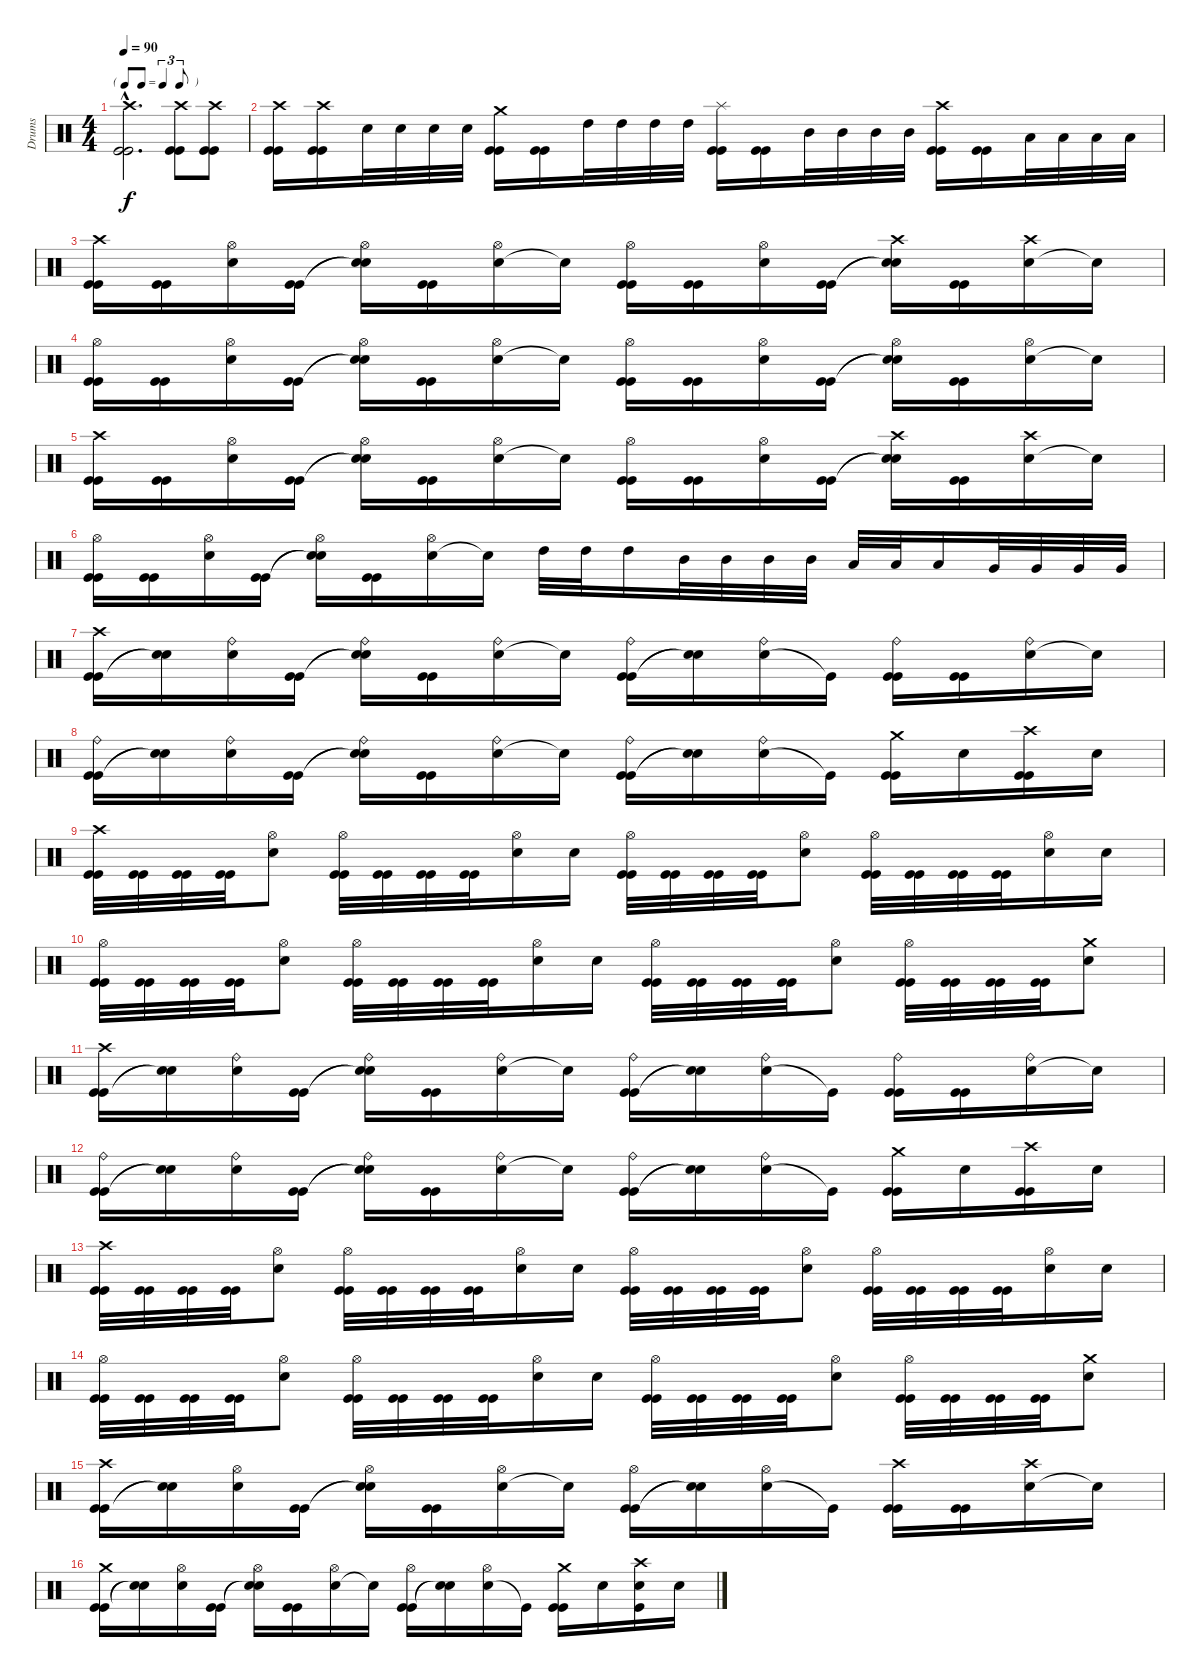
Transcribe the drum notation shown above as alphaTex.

\track ("Drums" "Drums") {instrument percussion}
\staff {score}
\articulation defaults
\ts (4 4)
\tf triplet8th
\tempo 90
\clef neutral
\ks c
("Kick (hit)"{hac} "Kick (hit)"{hac} "Crash high (hit)"{hac}).2{d dy f} ("Kick (hit)" "Crash high (hit)" "Kick (hit)").8 ("Kick (hit)" "Crash high (hit)" "Kick (hit)").8 |
("Kick (hit)" "Kick (hit)" "Crash high (hit)").16 ("Kick (hit)" "Kick (hit)" "Crash high (hit)").16 "Snare (hit) 2".32 "Snare (hit) 2".32 "Snare (hit) 2".32 "Snare (hit) 2".32 ("Kick (hit)" "Kick (hit)" "Crash medium (hit)").16 ("Kick (hit)" "Kick (hit)").16 "High Tom (hit)".32 "High Tom (hit)".32 "High Tom (hit)".32 "High Tom (hit)".32 ("Kick (hit)" "Kick (hit)" "Splash (hit)").16 ("Kick (hit)" "Kick (hit)").16 "Mid Tom (hit)".32 "Mid Tom (hit)".32 "Mid Tom (hit)".32 "Mid Tom (hit)".32 ("Kick (hit)" "Kick (hit)" "Crash high (hit)").16 ("Kick (hit)" "Kick (hit)").16 "Low Tom (hit)".32 "Low Tom (hit)".32 "Low Tom (hit)".32 "Low Tom (hit)".32 |
("Kick (hit)" "Kick (hit)" "Crash high (hit)").16 ("Kick (hit)" "Kick (hit)").16 ("Snare (hit) 2" "Hi-Hat (open)").16 ("Kick (hit)" "Kick (hit)").16 ("Snare (hit)"{t} "Snare (hit)"{t} "Hi-Hat (open)").16 ("Kick (hit)" "Kick (hit)").16 ("Snare (hit) 2" "Hi-Hat (open)").16 "Snare (hit)"{t}.16 ("Kick (hit)" "Kick (hit)" "Hi-Hat (open)").16 ("Kick (hit)" "Kick (hit)").16 ("Snare (hit) 2" "Hi-Hat (open)").16 ("Kick (hit)" "Kick (hit)").16 ("Snare (hit)"{t} "Snare (hit)"{t} "Crash high (hit)").16 ("Kick (hit)" "Kick (hit)").16 ("Snare (hit) 2" "Crash high (hit)").16 "Snare (hit)"{t}.16 |
("Kick (hit)" "Kick (hit)" "Hi-Hat (open)").16 ("Kick (hit)" "Kick (hit)").16 ("Snare (hit) 2" "Hi-Hat (open)").16 ("Kick (hit)" "Kick (hit)").16 ("Snare (hit)"{t} "Snare (hit)"{t} "Hi-Hat (open)").16 ("Kick (hit)" "Kick (hit)").16 ("Snare (hit) 2" "Hi-Hat (open)").16 "Snare (hit)"{t}.16 ("Kick (hit)" "Kick (hit)" "Hi-Hat (open)").16 ("Kick (hit)" "Kick (hit)").16 ("Snare (hit) 2" "Hi-Hat (open)").16 ("Kick (hit)" "Kick (hit)").16 ("Snare (hit)"{t} "Snare (hit)"{t} "Hi-Hat (open)").16 ("Kick (hit)" "Kick (hit)").16 ("Snare (hit) 2" "Hi-Hat (open)").16 "Snare (hit)"{t}.16 |
("Kick (hit)" "Kick (hit)" "Crash high (hit)").16 ("Kick (hit)" "Kick (hit)").16 ("Snare (hit) 2" "Hi-Hat (open)").16 ("Kick (hit)" "Kick (hit)").16 ("Snare (hit)"{t} "Snare (hit)"{t} "Hi-Hat (open)").16 ("Kick (hit)" "Kick (hit)").16 ("Snare (hit) 2" "Hi-Hat (open)").16 "Snare (hit)"{t}.16 ("Kick (hit)" "Kick (hit)" "Hi-Hat (open)").16 ("Kick (hit)" "Kick (hit)").16 ("Snare (hit) 2" "Hi-Hat (open)").16 ("Kick (hit)" "Kick (hit)").16 ("Snare (hit)"{t} "Snare (hit)"{t} "Crash high (hit)").16 ("Kick (hit)" "Kick (hit)").16 ("Snare (hit) 2" "Crash high (hit)").16 "Snare (hit)"{t}.16 |
("Kick (hit)" "Kick (hit)" "Hi-Hat (open)").16 ("Kick (hit)" "Kick (hit)").16 ("Snare (hit) 2" "Hi-Hat (open)").16 ("Kick (hit)" "Kick (hit)").16 ("Snare (hit)"{t} "Snare (hit)"{t} "Hi-Hat (open)").16 ("Kick (hit)" "Kick (hit)").16 ("Snare (hit) 2" "Hi-Hat (open)").16 "Snare (hit)"{t}.16 "High Tom (hit)".32 "High Tom (hit)".32 "High Tom (hit)".16 "Mid Tom (hit)".32 "Mid Tom (hit)".32 "Mid Tom (hit)".32 "Mid Tom (hit)".32 "Low Tom (hit)".32 "Low Tom (hit)".32 "Low Tom (hit)".16 "Very Low Tom (hit)".32 "Very Low Tom (hit)".32 "Very Low Tom (hit)".32 "Very Low Tom (hit)".32 |
("Kick (hit)" "Kick (hit)" "Crash high (hit)").16 ("Snare (hit) 2"{t} "Snare (hit)"{t}).16 ("Snare (hit) 2" "Ride (bell)").16 ("Kick (hit)" "Kick (hit)").16 ("Snare (hit)"{t} "Snare (hit) 2"{t} "Ride (bell)").16 ("Kick (hit)" "Kick (hit)").16 ("Snare (hit) 2" "Ride (bell)").16 "Snare (hit)"{t}.16 ("Kick (hit)" "Kick (hit)" "Ride (bell)").16 ("Snare (hit) 2"{t} "Snare (hit)"{t}).16 ("Snare (hit) 2" "Ride (bell)").16 "Kick (hit)"{t}.16 ("Kick (hit)" "Kick (hit)" "Ride (bell)").16 ("Kick (hit)" "Kick (hit)").16 ("Snare (hit) 2" "Ride (bell)").16 "Snare (hit)"{t}.16 |
("Kick (hit)" "Kick (hit)" "Ride (bell)").16 ("Snare (hit) 2"{t} "Snare (hit)"{t}).16 ("Snare (hit) 2" "Ride (bell)").16 ("Kick (hit)" "Kick (hit)").16 ("Snare (hit)"{t} "Snare (hit) 2"{t} "Ride (bell)").16 ("Kick (hit)" "Kick (hit)").16 ("Snare (hit) 2" "Ride (bell)").16 "Snare (hit)"{t}.16 ("Kick (hit)" "Kick (hit)" "Ride (bell)").16 ("Snare (hit) 2"{t} "Snare (hit)"{t}).16 ("Snare (hit) 2" "Ride (bell)").16 "Kick (hit)"{t}.16 ("Kick (hit)" "Kick (hit)" "Crash medium (hit)").16 "Snare (hit) 2".16 ("Kick (hit)" "Kick (hit)" "Crash high (hit)").16 "Snare (hit) 2".16 |
("Kick (hit)" "Kick (hit)" "Crash high (hit)").32 ("Kick (hit)" "Kick (hit)").32 ("Kick (hit)" "Kick (hit)").32 ("Kick (hit)" "Kick (hit)").32 ("Snare (hit) 2" "Hi-Hat (open)").8 ("Kick (hit)" "Kick (hit)" "Hi-Hat (open)").32 ("Kick (hit)" "Kick (hit)").32 ("Kick (hit)" "Kick (hit)").32 ("Kick (hit)" "Kick (hit)").32 ("Snare (hit) 2" "Hi-Hat (open)").16 "Snare (hit) 2".16 ("Kick (hit)" "Kick (hit)" "Hi-Hat (open)").32 ("Kick (hit)" "Kick (hit)").32 ("Kick (hit)" "Kick (hit)").32 ("Kick (hit)" "Kick (hit)").32 ("Snare (hit) 2" "Hi-Hat (open)").8 ("Kick (hit)" "Kick (hit)" "Hi-Hat (open)").32 ("Kick (hit)" "Kick (hit)").32 ("Kick (hit)" "Kick (hit)").32 ("Kick (hit)" "Kick (hit)").32 ("Snare (hit) 2" "Hi-Hat (open)").16 "Snare (hit) 2".16 |
("Kick (hit)" "Kick (hit)" "Hi-Hat (open)").32 ("Kick (hit)" "Kick (hit)").32 ("Kick (hit)" "Kick (hit)").32 ("Kick (hit)" "Kick (hit)").32 ("Snare (hit) 2" "Hi-Hat (open)").8 ("Kick (hit)" "Kick (hit)" "Hi-Hat (open)").32 ("Kick (hit)" "Kick (hit)").32 ("Kick (hit)" "Kick (hit)").32 ("Kick (hit)" "Kick (hit)").32 ("Snare (hit) 2" "Hi-Hat (open)").16 "Snare (hit) 2".16 ("Kick (hit)" "Kick (hit)" "Hi-Hat (open)").32 ("Kick (hit)" "Kick (hit)").32 ("Kick (hit)" "Kick (hit)").32 ("Kick (hit)" "Kick (hit)").32 ("Snare (hit) 2" "Hi-Hat (open)").8 ("Kick (hit)" "Kick (hit)" "Hi-Hat (open)").32 ("Kick (hit)" "Kick (hit)").32 ("Kick (hit)" "Kick (hit)").32 ("Kick (hit)" "Kick (hit)").32 ("Snare (hit) 2" "Crash medium (hit)").8 |
("Kick (hit)" "Kick (hit)" "Crash high (hit)").16 ("Snare (hit) 2"{t} "Snare (hit)"{t}).16 ("Snare (hit) 2" "Ride (bell)").16 ("Kick (hit)" "Kick (hit)").16 ("Snare (hit)"{t} "Snare (hit) 2"{t} "Ride (bell)").16 ("Kick (hit)" "Kick (hit)").16 ("Snare (hit) 2" "Ride (bell)").16 "Snare (hit)"{t}.16 ("Kick (hit)" "Kick (hit)" "Ride (bell)").16 ("Snare (hit) 2"{t} "Snare (hit)"{t}).16 ("Snare (hit) 2" "Ride (bell)").16 "Kick (hit)"{t}.16 ("Kick (hit)" "Kick (hit)" "Ride (bell)").16 ("Kick (hit)" "Kick (hit)").16 ("Snare (hit) 2" "Ride (bell)").16 "Snare (hit)"{t}.16 |
("Kick (hit)" "Kick (hit)" "Ride (bell)").16 ("Snare (hit) 2"{t} "Snare (hit)"{t}).16 ("Snare (hit) 2" "Ride (bell)").16 ("Kick (hit)" "Kick (hit)").16 ("Snare (hit)"{t} "Snare (hit) 2"{t} "Ride (bell)").16 ("Kick (hit)" "Kick (hit)").16 ("Snare (hit) 2" "Ride (bell)").16 "Snare (hit)"{t}.16 ("Kick (hit)" "Kick (hit)" "Ride (bell)").16 ("Snare (hit) 2"{t} "Snare (hit)"{t}).16 ("Snare (hit) 2" "Ride (bell)").16 "Kick (hit)"{t}.16 ("Kick (hit)" "Kick (hit)" "Crash medium (hit)").16 "Snare (hit) 2".16 ("Kick (hit)" "Kick (hit)" "Crash high (hit)").16 "Snare (hit) 2".16 |
("Kick (hit)" "Kick (hit)" "Crash high (hit)").32 ("Kick (hit)" "Kick (hit)").32 ("Kick (hit)" "Kick (hit)").32 ("Kick (hit)" "Kick (hit)").32 ("Snare (hit) 2" "Hi-Hat (open)").8 ("Kick (hit)" "Kick (hit)" "Hi-Hat (open)").32 ("Kick (hit)" "Kick (hit)").32 ("Kick (hit)" "Kick (hit)").32 ("Kick (hit)" "Kick (hit)").32 ("Snare (hit) 2" "Hi-Hat (open)").16 "Snare (hit) 2".16 ("Kick (hit)" "Kick (hit)" "Hi-Hat (open)").32 ("Kick (hit)" "Kick (hit)").32 ("Kick (hit)" "Kick (hit)").32 ("Kick (hit)" "Kick (hit)").32 ("Snare (hit) 2" "Hi-Hat (open)").8 ("Kick (hit)" "Kick (hit)" "Hi-Hat (open)").32 ("Kick (hit)" "Kick (hit)").32 ("Kick (hit)" "Kick (hit)").32 ("Kick (hit)" "Kick (hit)").32 ("Snare (hit) 2" "Hi-Hat (open)").16 "Snare (hit) 2".16 |
("Kick (hit)" "Kick (hit)" "Hi-Hat (open)").32 ("Kick (hit)" "Kick (hit)").32 ("Kick (hit)" "Kick (hit)").32 ("Kick (hit)" "Kick (hit)").32 ("Snare (hit) 2" "Hi-Hat (open)").8 ("Kick (hit)" "Kick (hit)" "Hi-Hat (open)").32 ("Kick (hit)" "Kick (hit)").32 ("Kick (hit)" "Kick (hit)").32 ("Kick (hit)" "Kick (hit)").32 ("Snare (hit) 2" "Hi-Hat (open)").16 "Snare (hit) 2".16 ("Kick (hit)" "Kick (hit)" "Hi-Hat (open)").32 ("Kick (hit)" "Kick (hit)").32 ("Kick (hit)" "Kick (hit)").32 ("Kick (hit)" "Kick (hit)").32 ("Snare (hit) 2" "Hi-Hat (open)").8 ("Kick (hit)" "Kick (hit)" "Hi-Hat (open)").32 ("Kick (hit)" "Kick (hit)").32 ("Kick (hit)" "Kick (hit)").32 ("Kick (hit)" "Kick (hit)").32 ("Snare (hit) 2" "Crash medium (hit)").8 |
("Kick (hit)" "Kick (hit)" "Crash high (hit)").16 ("Snare (hit) 2"{t} "Snare (hit)"{t}).16 ("Snare (hit) 2" "Hi-Hat (open)").16 ("Kick (hit)" "Kick (hit)").16 ("Snare (hit)"{t} "Snare (hit) 2"{t} "Hi-Hat (open)").16 ("Kick (hit)" "Kick (hit)").16 ("Snare (hit) 2" "Hi-Hat (open)").16 "Snare (hit)"{t}.16 ("Kick (hit)" "Kick (hit)" "Hi-Hat (open)").16 ("Snare (hit) 2"{t} "Snare (hit)"{t}).16 ("Snare (hit) 2" "Hi-Hat (open)").16 "Kick (hit)"{t}.16 ("Kick (hit)" "Kick (hit)" "Crash high (hit)").16 ("Kick (hit)" "Kick (hit)").16 ("Snare (hit) 2" "Crash high (hit)").16 "Snare (hit)"{t}.16 |
("Kick (hit)" "Kick (hit)" "Crash medium (hit)").16 ("Snare (hit) 2"{t} "Snare (hit)"{t}).16 ("Snare (hit) 2" "Hi-Hat (open)").16 ("Kick (hit)" "Kick (hit)").16 ("Snare (hit)"{t} "Snare (hit) 2"{t} "Hi-Hat (open)").16 ("Kick (hit)" "Kick (hit)").16 ("Snare (hit) 2" "Hi-Hat (open)").16 "Snare (hit)"{t}.16 ("Kick (hit)" "Kick (hit)" "Hi-Hat (open)").16 ("Snare (hit) 2"{t} "Snare (hit)"{t}).16 ("Snare (hit) 2" "Hi-Hat (open)").16 "Kick (hit)"{t}.16 ("Kick (hit)" "Kick (hit)" "Crash medium (hit)").16 "Snare (hit) 2".16 ("Kick (hit)" "Snare (hit) 2" "Crash high (hit)").16 "Snare (hit) 2".16
